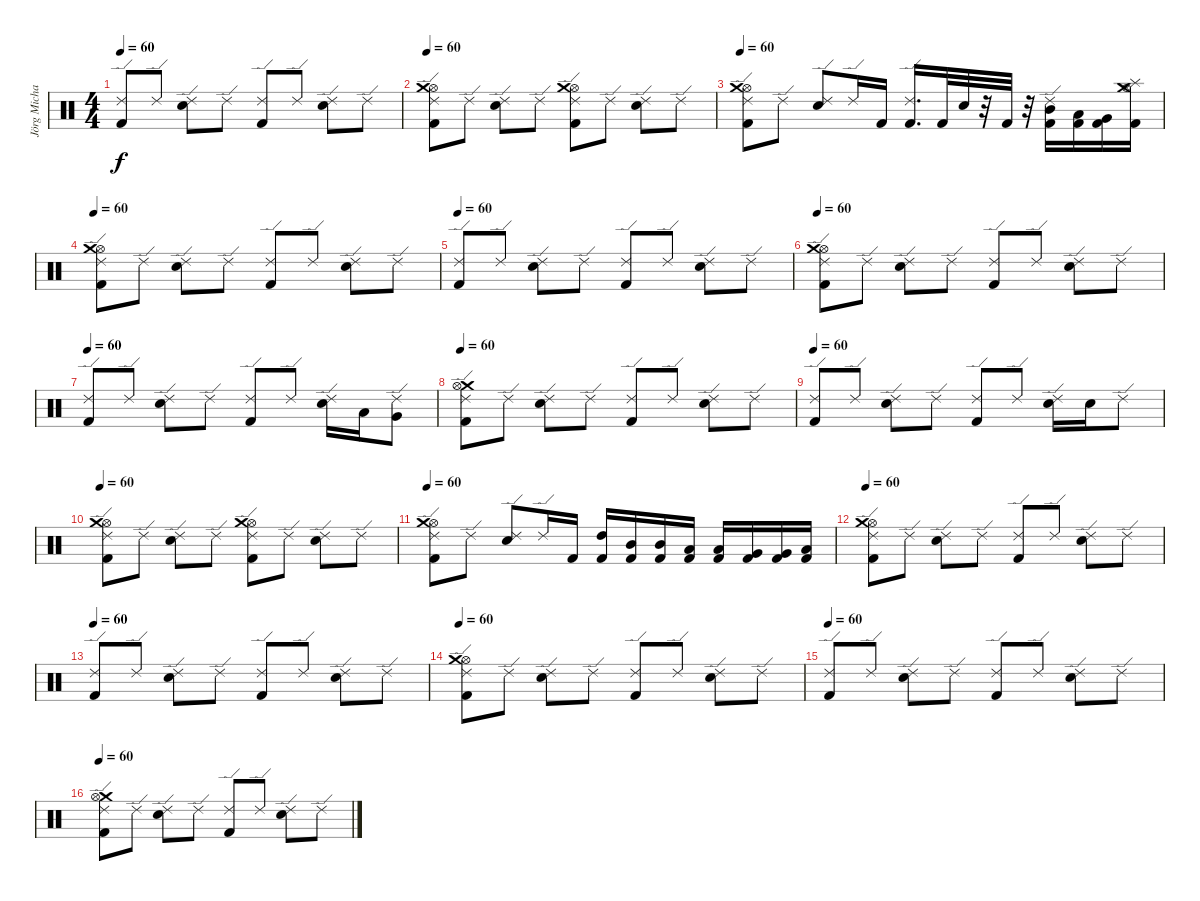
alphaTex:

\track ("Jörg Michael (Drums)" "Jörg Micha") {instrument percussion}
\staff {score}
\articulation defaults
\ts (4 4)
\tempo 60
\clef neutral
\ks c
("Kick (hit) 2" "Ride (edge) 2").8{dy f} "Ride (edge) 2".8 ("Electric Snare (hit)" "Ride (edge) 2").8 "Ride (edge) 2".8 ("Kick (hit) 2" "Ride (edge) 2").8 "Ride (edge) 2".8 ("Electric Snare (hit)" "Ride (edge) 2").8 "Ride (edge) 2".8 |
\tempo 60
("Hi-Hat (open)" "Crash medium (hit)" "Kick (hit) 2" "Ride (edge) 2").8 "Ride (edge) 2".8 ("Electric Snare (hit)" "Ride (edge) 2").8 "Ride (edge) 2".8 ("Hi-Hat (open)" "Crash medium (hit)" "Kick (hit) 2" "Ride (edge) 2").8 "Ride (edge) 2".8 ("Electric Snare (hit)" "Ride (edge) 2").8 "Ride (edge) 2".8 |
\tempo 60
("Hi-Hat (open)" "Crash medium (hit)" "Kick (hit) 2" "Ride (edge) 2").8 "Ride (edge) 2".8 ("Electric Snare (hit)" "Ride (edge) 2").8 "Ride (edge) 2".16 "Kick (hit) 2".16 ("Ride (edge) 2" "Kick (hit) 2").16{d} "Kick (hit) 2".32 "Electric Snare (hit)".32 r.32 "Kick (hit) 2".32 r.32 ("Ride (edge) 2" "Kick (hit) 2" "Mid Tom (hit)").16 ("Kick (hit) 2" "Low Tom (hit)").16 ("Kick (hit) 2" "Very Low Tom (hit)").16 ("Splash (hit)" "Crash medium (hit)" "Hi-Hat (open)" "Kick (hit) 2").16 |
\tempo 60
("Hi-Hat (open)" "Crash medium (hit)" "Kick (hit) 2" "Ride (edge) 2").8 "Ride (edge) 2".8 ("Electric Snare (hit)" "Ride (edge) 2").8 "Ride (edge) 2".8 ("Kick (hit) 2" "Ride (edge) 2").8 "Ride (edge) 2".8 ("Electric Snare (hit)" "Ride (edge) 2").8 "Ride (edge) 2".8 |
\tempo 60
("Kick (hit) 2" "Ride (edge) 2").8 "Ride (edge) 2".8 ("Electric Snare (hit)" "Ride (edge) 2").8 "Ride (edge) 2".8 ("Kick (hit) 2" "Ride (edge) 2").8 "Ride (edge) 2".8 ("Electric Snare (hit)" "Ride (edge) 2").8 "Ride (edge) 2".8 |
\tempo 60
("Hi-Hat (open)" "Crash medium (hit)" "Kick (hit) 2" "Ride (edge) 2").8 "Ride (edge) 2".8 ("Electric Snare (hit)" "Ride (edge) 2").8 "Ride (edge) 2".8 ("Kick (hit) 2" "Ride (edge) 2").8 "Ride (edge) 2".8 ("Electric Snare (hit)" "Ride (edge) 2").8 "Ride (edge) 2".8 |
\tempo 60
("Kick (hit) 2" "Ride (edge) 2").8 "Ride (edge) 2".8 ("Electric Snare (hit)" "Ride (edge) 2").8 "Ride (edge) 2".8 ("Kick (hit) 2" "Ride (edge) 2").8 "Ride (edge) 2".8 ("Electric Snare (hit)" "Ride (edge) 2").16 "Low Tom (hit)".16 ("Very Low Tom (hit)" "Ride (edge) 2").8 |
\tempo 60
("Crash medium (hit)" "Hi-Hat (open)" "Kick (hit) 2" "Ride (edge) 2").8 "Ride (edge) 2".8 ("Electric Snare (hit)" "Ride (edge) 2").8 "Ride (edge) 2".8 ("Kick (hit) 2" "Ride (edge) 2").8 "Ride (edge) 2".8 ("Electric Snare (hit)" "Ride (edge) 2").8 "Ride (edge) 2".8 |
\tempo 60
("Kick (hit) 2" "Ride (edge) 2").8 "Ride (edge) 2".8 ("Electric Snare (hit)" "Ride (edge) 2").8 "Ride (edge) 2".8 ("Kick (hit) 2" "Ride (edge) 2").8 "Ride (edge) 2".8 ("Electric Snare (hit)" "Ride (edge) 2").16 "Electric Snare (hit)".16 "Ride (edge) 2".8 |
\tempo 60
("Hi-Hat (open)" "Crash medium (hit)" "Kick (hit) 2" "Ride (edge) 2").8 "Ride (edge) 2".8 ("Electric Snare (hit)" "Ride (edge) 2").8 "Ride (edge) 2".8 ("Hi-Hat (open)" "Crash medium (hit)" "Kick (hit) 2" "Ride (edge) 2").8 "Ride (edge) 2".8 ("Electric Snare (hit)" "Ride (edge) 2").8 "Ride (edge) 2".8 |
\tempo 60
("Hi-Hat (open)" "Crash medium (hit)" "Kick (hit) 2" "Ride (edge) 2").8 "Ride (edge) 2".8 ("Electric Snare (hit)" "Ride (edge) 2").8 "Ride (edge) 2".16 "Kick (hit) 2".16 ("High Tom (hit)" "Kick (hit) 2").16 ("Mid Tom (hit)" "Kick (hit) 2").16 ("Mid Tom (hit)" "Kick (hit) 2").16 ("Low Tom (hit)" "Kick (hit) 2").16 ("Low Tom (hit)" "Kick (hit) 2").16 ("Very Low Tom (hit)" "Kick (hit) 2").16 ("Very Low Tom (hit)" "Kick (hit) 2").16 ("Low Floor Tom (hit)" "Kick (hit) 2").16 |
\tempo 60
("Hi-Hat (open)" "Crash medium (hit)" "Kick (hit) 2" "Ride (edge) 2").8 "Ride (edge) 2".8 ("Electric Snare (hit)" "Ride (edge) 2").8 "Ride (edge) 2".8 ("Kick (hit) 2" "Ride (edge) 2").8 "Ride (edge) 2".8 ("Electric Snare (hit)" "Ride (edge) 2").8 "Ride (edge) 2".8 |
\tempo 60
("Kick (hit) 2" "Ride (edge) 2").8 "Ride (edge) 2".8 ("Electric Snare (hit)" "Ride (edge) 2").8 "Ride (edge) 2".8 ("Kick (hit) 2" "Ride (edge) 2").8 "Ride (edge) 2".8 ("Electric Snare (hit)" "Ride (edge) 2").8 "Ride (edge) 2".8 |
\tempo 60
("Hi-Hat (open)" "Crash medium (hit)" "Kick (hit) 2" "Ride (edge) 2").8 "Ride (edge) 2".8 ("Electric Snare (hit)" "Ride (edge) 2").8 "Ride (edge) 2".8 ("Kick (hit) 2" "Ride (edge) 2").8 "Ride (edge) 2".8 ("Electric Snare (hit)" "Ride (edge) 2").8 "Ride (edge) 2".8 |
\tempo 60
("Kick (hit) 2" "Ride (edge) 2").8 "Ride (edge) 2".8 ("Electric Snare (hit)" "Ride (edge) 2").8 "Ride (edge) 2".8 ("Kick (hit) 2" "Ride (edge) 2").8 "Ride (edge) 2".8 ("Electric Snare (hit)" "Ride (edge) 2").8 "Ride (edge) 2".8 |
\tempo 60
("Crash medium (hit)" "Hi-Hat (open)" "Kick (hit) 2" "Ride (edge) 2").8 "Ride (edge) 2".8 ("Electric Snare (hit)" "Ride (edge) 2").8 "Ride (edge) 2".8 ("Kick (hit) 2" "Ride (edge) 2").8 "Ride (edge) 2".8 ("Electric Snare (hit)" "Ride (edge) 2").8 "Ride (edge) 2".8
